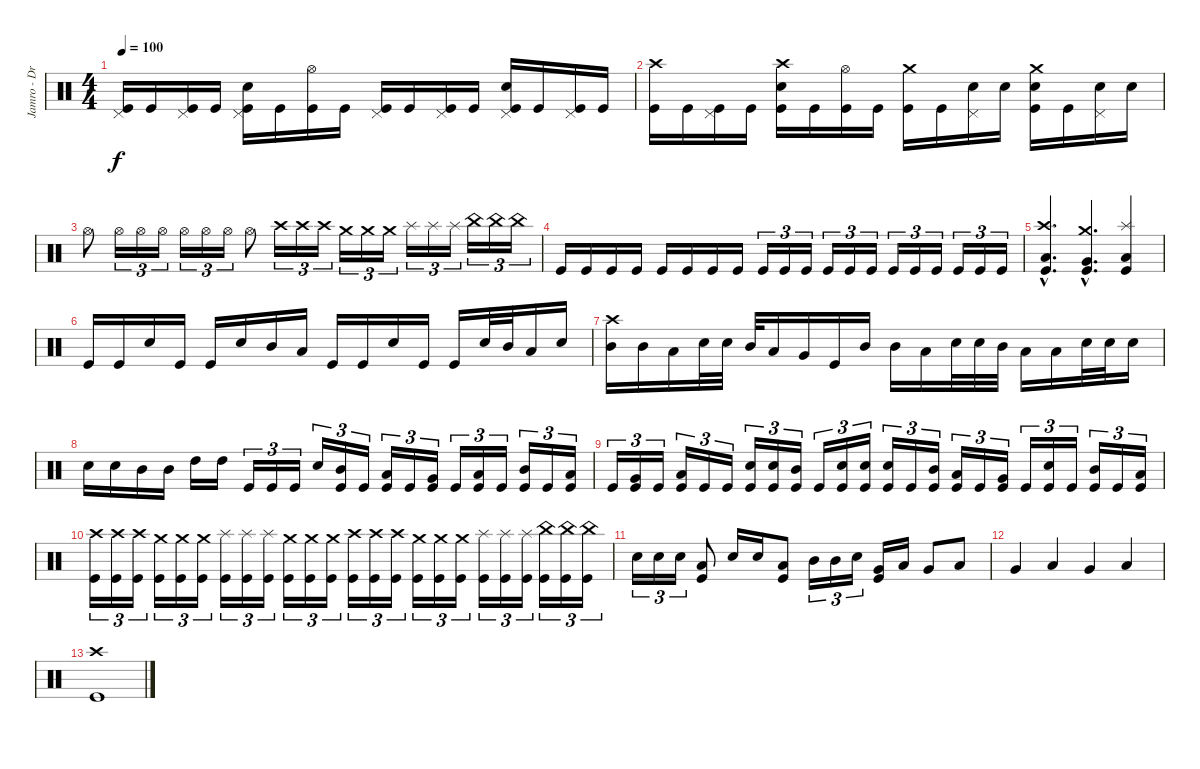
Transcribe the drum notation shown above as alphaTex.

\track ("Jamro - Drums" "Jamro - Dr") {instrument percussion}
\staff {score}
\articulation defaults
\ts (4 4)
\tempo 100
\clef neutral
\ks c
("Kick (hit)" "Pedal Hi-Hat (hit)").16{dy f} "Kick (hit)".16 ("Kick (hit)" "Pedal Hi-Hat (hit)").16 "Kick (hit)".16 ("Kick (hit)" "Pedal Hi-Hat (hit)" "Electric Snare (hit)").16 "Kick (hit)".16 ("Kick (hit)" "Hi-Hat (open)").16 "Kick (hit)".16 ("Kick (hit)" "Pedal Hi-Hat (hit)").16 "Kick (hit)".16 ("Kick (hit)" "Pedal Hi-Hat (hit)").16 "Kick (hit)".16 ("Kick (hit)" "Pedal Hi-Hat (hit)" "Electric Snare (hit)").16 "Kick (hit)".16 ("Kick (hit)" "Pedal Hi-Hat (hit)").16 "Kick (hit)".16 |
("Kick (hit)" "Crash high (hit)").16 "Kick (hit)".16 ("Kick (hit)" "Pedal Hi-Hat (hit)").16 "Kick (hit)".16 ("Kick (hit)" "Crash high (hit)" "Electric Snare (hit)").16 "Kick (hit)".16 ("Kick (hit)" "Hi-Hat (open)").16 "Kick (hit)".16 ("Kick (hit)" "Crash medium (hit)").16 "Kick (hit)".16 ("Pedal Hi-Hat (hit)" "Electric Snare (hit)").16 "Electric Snare (hit)".16 ("Kick (hit)" "Crash medium (hit)" "Electric Snare (hit)").16 "Kick (hit)".16 ("Pedal Hi-Hat (hit)" "Electric Snare (hit)").16 "Electric Snare (hit)".16 |
"Hi-Hat (open)".8 "Hi-Hat (open)".16{tu (3 2)} "Hi-Hat (open)".16{tu (3 2)} "Hi-Hat (open)".16{tu (3 2)} "Hi-Hat (open)".16{tu (3 2)} "Hi-Hat (open)".16{tu (3 2)} "Hi-Hat (open)".16{tu (3 2)} "Hi-Hat (open)".8 "Crash high (hit)".16{tu (3 2)} "Crash high (hit)".16{tu (3 2)} "Crash high (hit)".16{tu (3 2)} "Crash medium (hit)".16{tu (3 2)} "Crash medium (hit)".16{tu (3 2)} "Crash medium (hit)".16{tu (3 2)} "Splash (hit)".16{tu (3 2)} "Splash (hit)".16{tu (3 2)} "Splash (hit)".16{tu (3 2)} "China (hit)".16{tu (3 2)} "China (hit)".16{tu (3 2)} "China (hit)".16{tu (3 2)} |
"Kick (hit)".16 "Kick (hit)".16 "Kick (hit)".16 "Kick (hit)".16 "Kick (hit)".16 "Kick (hit)".16 "Kick (hit)".16 "Kick (hit)".16 "Kick (hit)".16{tu (3 2)} "Kick (hit)".16{tu (3 2)} "Kick (hit)".16{tu (3 2)} "Kick (hit)".16{tu (3 2)} "Kick (hit)".16{tu (3 2)} "Kick (hit)".16{tu (3 2)} "Kick (hit)".16{tu (3 2)} "Kick (hit)".16{tu (3 2)} "Kick (hit)".16{tu (3 2)} "Kick (hit)".16{tu (3 2)} "Kick (hit)".16{tu (3 2)} "Kick (hit)".16{tu (3 2)} |
("Crash high (hit)"{hac} "Kick (hit)"{hac} "Low Tom (hit)"{hac}).4{d} ("Crash medium (hit)"{hac} "Kick (hit)"{hac} "Very Low Tom (hit)"{hac}).4{d} ("Splash (hit)" "Kick (hit)" "Low Floor Tom (hit)").4 |
"Kick (hit)".16 "Kick (hit)".16 "Electric Snare (hit)".16 "Kick (hit)".16 "Kick (hit)".16 "Electric Snare (hit)".16 "Mid Tom (hit)".16 "Low Tom (hit)".16 "Kick (hit)".16 "Kick (hit)".16 "Electric Snare (hit)".16 "Kick (hit)".16 "Kick (hit)".16 "Electric Snare (hit)".32 "Mid Tom (hit)".32 "Low Tom (hit)".16 "Electric Snare (hit)".16 |
("Crash high (hit)" "Mid Tom (hit)").16 "Mid Tom (hit)".16 "Low Tom (hit)".16 "Electric Snare (hit)".32 "Electric Snare (hit)".32 "Mid Tom (hit)".32 "Low Tom (hit)".16 "Very Low Tom (hit)".16 "Kick (hit)".16 "Mid Tom (hit)".16 "Mid Tom (hit)".16 "Low Tom (hit)".16 "Electric Snare (hit)".32 "Electric Snare (hit)".32 "Mid Tom (hit)".32 "Low Tom (hit)".16 "Low Tom (hit)".16 "Electric Snare (hit)".32 "Electric Snare (hit)".32 "Electric Snare (hit)".16 |
"Electric Snare (hit)".16 "Electric Snare (hit)".16 "Mid Tom (hit)".16 "Mid Tom (hit)".16 "High Tom (hit)".16 "High Tom (hit)".16 "Kick (hit)".16{tu (3 2)} "Kick (hit)".16{tu (3 2)} "Kick (hit)".16{tu (3 2)} "Electric Snare (hit)".16{tu (3 2)} ("Kick (hit)" "Mid Tom (hit)").16{tu (3 2)} "Kick (hit)".16{tu (3 2)} ("Kick (hit)" "Low Tom (hit)").16{tu (3 2)} "Kick (hit)".16{tu (3 2)} ("Kick (hit)" "Very Low Tom (hit)").16{tu (3 2)} "Kick (hit)".16{tu (3 2)} ("Kick (hit)" "Low Floor Tom (hit)").16{tu (3 2)} "Kick (hit)".16{tu (3 2)} ("Kick (hit)" "Mid Tom (hit)").16{tu (3 2)} "Kick (hit)".16{tu (3 2)} ("Kick (hit)" "Low Tom (hit)").16{tu (3 2)} |
"Kick (hit)".16{tu (3 2)} ("Kick (hit)" "Very Low Tom (hit)").16{tu (3 2)} "Kick (hit)".16{tu (3 2)} ("Kick (hit)" "Low Floor Tom (hit)").16{tu (3 2)} "Kick (hit)".16{tu (3 2)} "Kick (hit)".16{tu (3 2)} ("Kick (hit)" "Electric Snare (hit)").16{tu (3 2)} ("Kick (hit)" "Electric Snare (hit)").16{tu (3 2)} ("Kick (hit)" "Mid Tom (hit)").16{tu (3 2)} "Kick (hit)".16{tu (3 2)} ("Kick (hit)" "Electric Snare (hit)").16{tu (3 2)} ("Kick (hit)" "Electric Snare (hit)").16{tu (3 2)} ("Kick (hit)" "Electric Snare (hit)").16{tu (3 2)} "Kick (hit)".16{tu (3 2)} ("Kick (hit)" "Mid Tom (hit)").16{tu (3 2)} ("Kick (hit)" "Low Tom (hit)").16{tu (3 2)} "Kick (hit)".16{tu (3 2)} ("Kick (hit)" "Very Low Tom (hit)").16{tu (3 2)} "Kick (hit)".16{tu (3 2)} ("Kick (hit)" "Electric Snare (hit)").16{tu (3 2)} "Kick (hit)".16{tu (3 2)} ("Kick (hit)" "Mid Tom (hit)").16{tu (3 2)} "Kick (hit)".16{tu (3 2)} ("Kick (hit)" "Low Tom (hit)").16{tu (3 2)} |
("Crash high (hit)" "Kick (hit)").16{tu (3 2)} ("Crash high (hit)" "Kick (hit)").16{tu (3 2)} ("Crash high (hit)" "Kick (hit)").16{tu (3 2)} ("Crash medium (hit)" "Kick (hit)").16{tu (3 2)} ("Crash medium (hit)" "Kick (hit)").16{tu (3 2)} ("Crash medium (hit)" "Kick (hit)").16{tu (3 2)} ("Splash (hit)" "Kick (hit)").16{tu (3 2)} ("Splash (hit)" "Kick (hit)").16{tu (3 2)} ("Splash (hit)" "Kick (hit)").16{tu (3 2)} ("Crash medium (hit)" "Kick (hit)").16{tu (3 2)} ("Crash medium (hit)" "Kick (hit)").16{tu (3 2)} ("Crash medium (hit)" "Kick (hit)").16{tu (3 2)} ("Crash high (hit)" "Kick (hit)").16{tu (3 2)} ("Crash high (hit)" "Kick (hit)").16{tu (3 2)} ("Crash high (hit)" "Kick (hit)").16{tu (3 2)} ("Crash medium (hit)" "Kick (hit)").16{tu (3 2)} ("Crash medium (hit)" "Kick (hit)").16{tu (3 2)} ("Crash medium (hit)" "Kick (hit)").16{tu (3 2)} ("Splash (hit)" "Kick (hit)").16{tu (3 2)} ("Splash (hit)" "Kick (hit)").16{tu (3 2)} ("Splash (hit)" "Kick (hit)").16{tu (3 2)} ("China (hit)" "Kick (hit)").16{tu (3 2)} ("China (hit)" "Kick (hit)").16{tu (3 2)} ("China (hit)" "Kick (hit)").16{tu (3 2)} |
"Electric Snare (hit)".16{tu (3 2)} "Electric Snare (hit)".16{tu (3 2)} "Electric Snare (hit)".16{tu (3 2)} ("Kick (hit)" "Low Tom (hit)").8 "Electric Snare (hit)".16 "Electric Snare (hit)".16 ("Kick (hit)" "Low Tom (hit)").8 "Mid Tom (hit)".16{tu (3 2)} "Mid Tom (hit)".16{tu (3 2)} "Electric Snare (hit)".16{tu (3 2)} ("Kick (hit)" "Very Low Tom (hit)").16 "Low Tom (hit)".16 "Very Low Tom (hit)".8 "Low Floor Tom (hit)".8 |
"Very Low Tom (hit)".4 "Low Floor Tom (hit)".4 "Very Low Tom (hit)".4 "Low Floor Tom (hit)".4 |
("Crash high (hit)" "Kick (hit)").1
